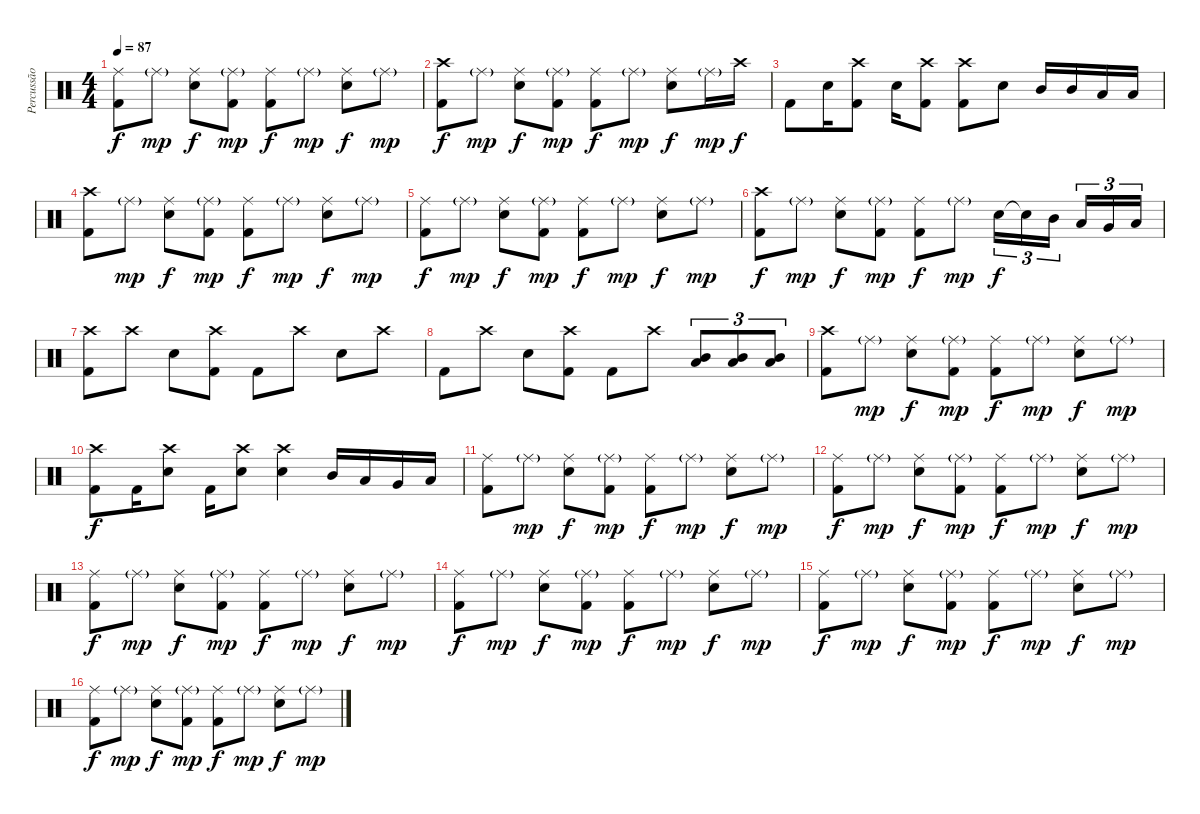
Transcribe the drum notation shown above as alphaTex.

\track ("Percussão" "Percussão") {instrument percussion}
\staff {score}
\articulation defaults
\ts (4 4)
\tempo 87
\clef neutral
\ks c
("Ride (middle)" "Kick (hit) 2").8{dy f} "Ride (middle)"{g}.8{dy mp} ("Ride (middle)" "Snare (hit) 2").8{dy f} ("Ride (middle)"{g} "Kick (hit) 2").8{dy mp} ("Ride (middle)" "Kick (hit) 2").8{dy f} "Ride (middle)"{g}.8{dy mp} ("Ride (middle)" "Snare (hit) 2").8{dy f} "Ride (middle)"{g}.8{dy mp} |
("Crash high (hit)" "Kick (hit) 2").8{dy f} "Ride (middle)"{g}.8{dy mp} ("Ride (middle)" "Snare (hit) 2").8{dy f} ("Ride (middle)"{g} "Kick (hit) 2").8{dy mp} ("Ride (middle)" "Kick (hit) 2").8{dy f} "Ride (middle)"{g}.8{dy mp} ("Ride (middle)" "Snare (hit) 2").8{dy f} "Ride (middle)"{g}.16{dy mp} "Crash high (hit)".16{dy f} |
"Kick (hit) 2".8 "Snare (hit) 2".16 ("Crash high (hit)" "Kick (hit) 2").8 "Snare (hit) 2".16 ("Crash high (hit)" "Kick (hit) 2").8 ("Crash high (hit)" "Kick (hit) 2").8 "Snare (hit) 2".8 "Mid Tom (hit)".16 "Mid Tom (hit)".16 "Low Tom (hit)".16 "Low Floor Tom (hit)".16 |
("Crash high (hit)" "Kick (hit) 2").8 "Ride (middle)"{g}.8{dy mp} ("Ride (middle)" "Snare (hit) 2").8{dy f} ("Ride (middle)"{g} "Kick (hit) 2").8{dy mp} ("Ride (middle)" "Kick (hit) 2").8{dy f} "Ride (middle)"{g}.8{dy mp} ("Ride (middle)" "Snare (hit) 2").8{dy f} "Ride (middle)"{g}.8{dy mp} |
("Ride (middle)" "Kick (hit) 2").8{dy f} "Ride (middle)"{g}.8{dy mp} ("Ride (middle)" "Snare (hit) 2").8{dy f} ("Ride (middle)"{g} "Kick (hit) 2").8{dy mp} ("Ride (middle)" "Kick (hit) 2").8{dy f} "Ride (middle)"{g}.8{dy mp} ("Ride (middle)" "Snare (hit) 2").8{dy f} "Ride (middle)"{g}.8{dy mp} |
("Crash high (hit)" "Kick (hit) 2").8{dy f} "Ride (middle)"{g}.8{dy mp} ("Ride (middle)" "Snare (hit) 2").8{dy f} ("Ride (middle)"{g} "Kick (hit) 2").8{dy mp} ("Ride (middle)" "Kick (hit) 2").8{dy f} "Ride (middle)"{g}.8{dy mp} "Snare (hit) 2".16{tu (3 2) dy f} "Snare (hit)"{t}.16{tu (3 2)} "Mid Tom (hit)".16{tu (3 2) beam splitsecondary} "Low Tom (hit)".16{tu (3 2)} "Very Low Tom (hit)".16{tu (3 2)} "Low Floor Tom (hit)".16{tu (3 2)} |
("Crash high (hit)" "Kick (hit) 2").8 "Crash high (hit)".8 "Snare (hit) 2".8 ("Crash high (hit)" "Kick (hit) 2").8 "Kick (hit) 2".8 "Crash high (hit)".8 "Snare (hit) 2".8 "Crash high (hit)".8 |
"Kick (hit) 2".8 "Crash high (hit)".8 "Snare (hit) 2".8 ("Crash high (hit)" "Kick (hit) 2").8 "Kick (hit) 2".8 "Crash high (hit)".8 ("Mid Tom (hit)" "Low Tom (hit)").8{tu (3 2)} ("Mid Tom (hit)" "Low Tom (hit)").8{tu (3 2)} ("Mid Tom (hit)" "Low Tom (hit)").8{tu (3 2)} |
("Crash high (hit)" "Kick (hit) 2").8 "Ride (middle)"{g}.8{dy mp} ("Ride (middle)" "Snare (hit) 2").8{dy f} ("Ride (middle)"{g} "Kick (hit) 2").8{dy mp} ("Ride (middle)" "Kick (hit) 2").8{dy f} "Ride (middle)"{g}.8{dy mp} ("Ride (middle)" "Snare (hit) 2").8{dy f} "Ride (middle)"{g}.8{dy mp} |
("Crash high (hit)" "Kick (hit) 2").8{dy f} "Kick (hit) 2".16 ("Crash high (hit)" "Snare (hit) 2").8 "Kick (hit) 2".16 ("Crash high (hit)" "Snare (hit) 2").8 ("Crash high (hit)" "Snare (hit) 2").4 "Mid Tom (hit)".16 "Low Tom (hit)".16 "Very Low Tom (hit)".16 "Low Floor Tom (hit)".16 |
("Ride (middle)" "Kick (hit) 2").8 "Ride (middle)"{g}.8{dy mp} ("Ride (middle)" "Snare (hit) 2").8{dy f} ("Ride (middle)"{g} "Kick (hit) 2").8{dy mp} ("Ride (middle)" "Kick (hit) 2").8{dy f} "Ride (middle)"{g}.8{dy mp} ("Ride (middle)" "Snare (hit) 2").8{dy f} "Ride (middle)"{g}.8{dy mp} |
("Ride (middle)" "Kick (hit) 2").8{dy f} "Ride (middle)"{g}.8{dy mp} ("Ride (middle)" "Snare (hit) 2").8{dy f} ("Ride (middle)"{g} "Kick (hit) 2").8{dy mp} ("Ride (middle)" "Kick (hit) 2").8{dy f} "Ride (middle)"{g}.8{dy mp} ("Ride (middle)" "Snare (hit) 2").8{dy f} "Ride (middle)"{g}.8{dy mp} |
("Ride (middle)" "Kick (hit) 2").8{dy f} "Ride (middle)"{g}.8{dy mp} ("Ride (middle)" "Snare (hit) 2").8{dy f} ("Ride (middle)"{g} "Kick (hit) 2").8{dy mp} ("Ride (middle)" "Kick (hit) 2").8{dy f} "Ride (middle)"{g}.8{dy mp} ("Ride (middle)" "Snare (hit) 2").8{dy f} "Ride (middle)"{g}.8{dy mp} |
("Ride (middle)" "Kick (hit) 2").8{dy f} "Ride (middle)"{g}.8{dy mp} ("Ride (middle)" "Snare (hit) 2").8{dy f} ("Ride (middle)"{g} "Kick (hit) 2").8{dy mp} ("Ride (middle)" "Kick (hit) 2").8{dy f} "Ride (middle)"{g}.8{dy mp} ("Ride (middle)" "Snare (hit) 2").8{dy f} "Ride (middle)"{g}.8{dy mp} |
("Ride (middle)" "Kick (hit) 2").8{dy f} "Ride (middle)"{g}.8{dy mp} ("Ride (middle)" "Snare (hit) 2").8{dy f} ("Ride (middle)"{g} "Kick (hit) 2").8{dy mp} ("Ride (middle)" "Kick (hit) 2").8{dy f} "Ride (middle)"{g}.8{dy mp} ("Ride (middle)" "Snare (hit) 2").8{dy f} "Ride (middle)"{g}.8{dy mp} |
("Ride (middle)" "Kick (hit) 2").8{dy f} "Ride (middle)"{g}.8{dy mp} ("Ride (middle)" "Snare (hit) 2").8{dy f} ("Ride (middle)"{g} "Kick (hit) 2").8{dy mp} ("Ride (middle)" "Kick (hit) 2").8{dy f} "Ride (middle)"{g}.8{dy mp} ("Ride (middle)" "Snare (hit) 2").8{dy f} "Ride (middle)"{g}.8{dy mp}
